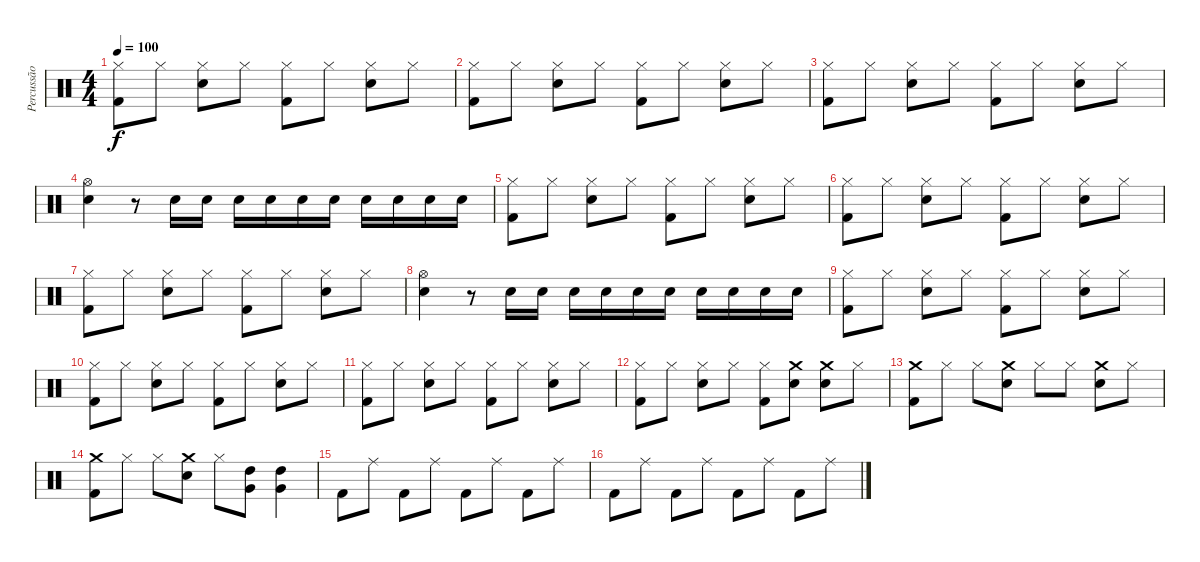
\track ("Percussão" "Percussão") {instrument percussion}
\staff {score}
\articulation defaults
\ts (4 4)
\tempo 100
\clef neutral
\ks c
("Hi-Hat (closed)" "Kick (hit) 2").8{dy f} "Hi-Hat (closed)".8 ("Hi-Hat (closed)" "Snare (hit) 2").8 "Hi-Hat (closed)".8 ("Hi-Hat (closed)" "Kick (hit) 2").8 "Hi-Hat (closed)".8 ("Hi-Hat (closed)" "Snare (hit) 2").8 "Hi-Hat (closed)".8 |
("Hi-Hat (closed)" "Kick (hit) 2").8 "Hi-Hat (closed)".8 ("Hi-Hat (closed)" "Snare (hit) 2").8 "Hi-Hat (closed)".8 ("Hi-Hat (closed)" "Kick (hit) 2").8 "Hi-Hat (closed)".8 ("Hi-Hat (closed)" "Snare (hit) 2").8 "Hi-Hat (closed)".8 |
("Hi-Hat (closed)" "Kick (hit) 2").8 "Hi-Hat (closed)".8 ("Hi-Hat (closed)" "Snare (hit) 2").8 "Hi-Hat (closed)".8 ("Hi-Hat (closed)" "Kick (hit) 2").8 "Hi-Hat (closed)".8 ("Hi-Hat (closed)" "Snare (hit) 2").8 "Hi-Hat (closed)".8 |
("Hi-Hat (open)" "Snare (hit) 2").4 r.8 "Snare (hit) 2".16 "Snare (hit) 2".16 "Snare (hit) 2".16 "Snare (hit) 2".16 "Snare (hit) 2".16 "Snare (hit) 2".16 "Snare (hit) 2".16 "Snare (hit) 2".16 "Snare (hit) 2".16 "Snare (hit) 2".16 |
("Hi-Hat (closed)" "Kick (hit) 2").8 "Hi-Hat (closed)".8 ("Hi-Hat (closed)" "Snare (hit) 2").8 "Hi-Hat (closed)".8 ("Hi-Hat (closed)" "Kick (hit) 2").8 "Hi-Hat (closed)".8 ("Hi-Hat (closed)" "Snare (hit) 2").8 "Hi-Hat (closed)".8 |
("Hi-Hat (closed)" "Kick (hit) 2").8 "Hi-Hat (closed)".8 ("Hi-Hat (closed)" "Snare (hit) 2").8 "Hi-Hat (closed)".8 ("Hi-Hat (closed)" "Kick (hit) 2").8 "Hi-Hat (closed)".8 ("Hi-Hat (closed)" "Snare (hit) 2").8 "Hi-Hat (closed)".8 |
("Hi-Hat (closed)" "Kick (hit) 2").8 "Hi-Hat (closed)".8 ("Hi-Hat (closed)" "Snare (hit) 2").8 "Hi-Hat (closed)".8 ("Hi-Hat (closed)" "Kick (hit) 2").8 "Hi-Hat (closed)".8 ("Hi-Hat (closed)" "Snare (hit) 2").8 "Hi-Hat (closed)".8 |
("Hi-Hat (open)" "Snare (hit) 2").4 r.8 "Snare (hit) 2".16 "Snare (hit) 2".16 "Snare (hit) 2".16 "Snare (hit) 2".16 "Snare (hit) 2".16 "Snare (hit) 2".16 "Snare (hit) 2".16 "Snare (hit) 2".16 "Snare (hit) 2".16 "Snare (hit) 2".16 |
("Hi-Hat (closed)" "Kick (hit) 2").8 "Hi-Hat (closed)".8 ("Hi-Hat (closed)" "Snare (hit) 2").8 "Hi-Hat (closed)".8 ("Hi-Hat (closed)" "Kick (hit) 2").8 "Hi-Hat (closed)".8 ("Hi-Hat (closed)" "Snare (hit) 2").8 "Hi-Hat (closed)".8 |
("Hi-Hat (closed)" "Kick (hit) 2").8 "Hi-Hat (closed)".8 ("Hi-Hat (closed)" "Snare (hit) 2").8 "Hi-Hat (closed)".8 ("Hi-Hat (closed)" "Kick (hit) 2").8 "Hi-Hat (closed)".8 ("Hi-Hat (closed)" "Snare (hit) 2").8 "Hi-Hat (closed)".8 |
("Hi-Hat (closed)" "Kick (hit) 2").8 "Hi-Hat (closed)".8 ("Hi-Hat (closed)" "Snare (hit) 2").8 "Hi-Hat (closed)".8 ("Hi-Hat (closed)" "Kick (hit) 2").8 "Hi-Hat (closed)".8 ("Hi-Hat (closed)" "Snare (hit) 2").8 "Hi-Hat (closed)".8 |
("Hi-Hat (closed)" "Kick (hit) 2").8 "Hi-Hat (closed)".8 ("Hi-Hat (closed)" "Snare (hit) 2").8 "Hi-Hat (closed)".8 ("Hi-Hat (closed)" "Kick (hit) 2").8 ("Crash medium (hit)" "Snare (hit) 2").8 ("Crash medium (hit)" "Snare (hit) 2").8 "Hi-Hat (closed)".8 |
("Crash medium (hit)" "Kick (hit) 2").8 "Hi-Hat (closed)".8 "Hi-Hat (closed)".8 ("Crash medium (hit)" "Snare (hit) 2").8 "Hi-Hat (closed)".8 "Hi-Hat (closed)".8 ("Crash medium (hit)" "Snare (hit) 2").8 "Hi-Hat (closed)".8 |
("Crash medium (hit)" "Kick (hit) 2").8 "Hi-Hat (closed)".8 "Hi-Hat (closed)".8 ("Crash medium (hit)" "Snare (hit) 2").8 "Hi-Hat (closed)".8 ("Very Low Tom (hit)" "High Tom (hit)").8 ("Very Low Tom (hit)" "High Tom (hit)").4 |
"Kick (hit) 2".8 "Ride (middle)".8 "Kick (hit) 2".8 "Ride (middle)".8 "Kick (hit) 2".8 "Ride (middle)".8 "Kick (hit) 2".8 "Ride (middle)".8 |
"Kick (hit) 2".8 "Ride (middle)".8 "Kick (hit) 2".8 "Ride (middle)".8 "Kick (hit) 2".8 "Ride (middle)".8 "Kick (hit) 2".8 "Ride (middle)".8
